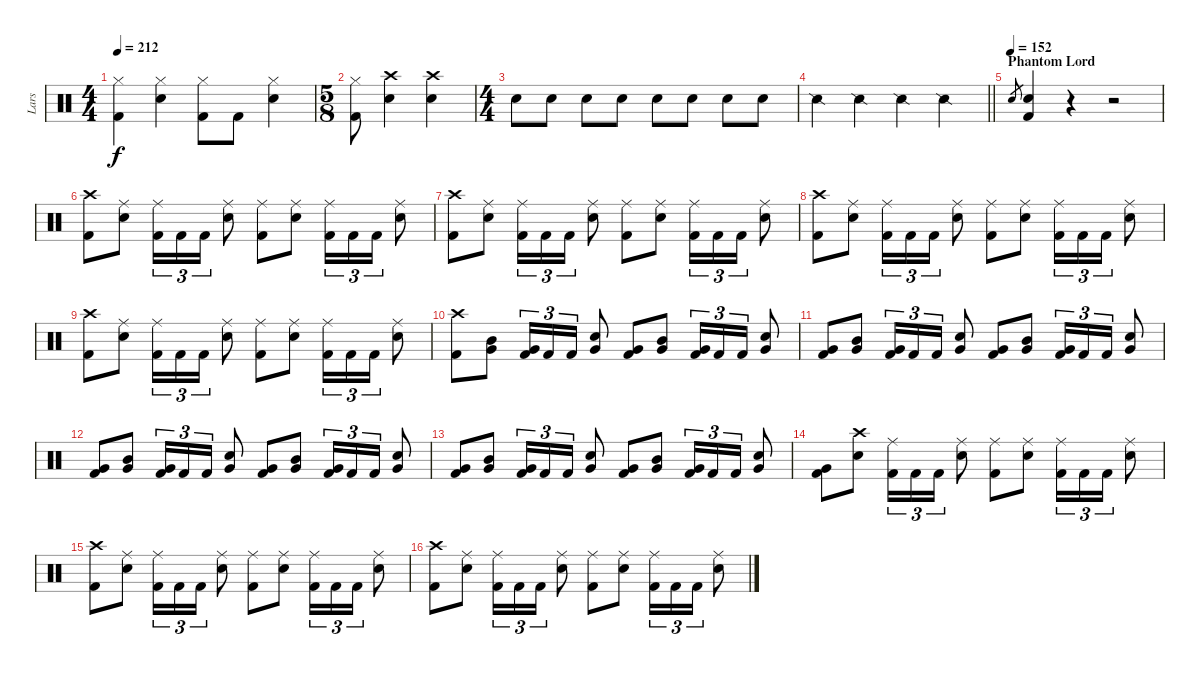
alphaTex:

\track ("Lars" "Lars") {instrument percussion}
\staff {score}
\articulation defaults
\ts (4 4)
\tempo 212
\clef neutral
\ks c
("Hi-Hat (closed)" "Kick (hit) 2").4{dy f} ("Hi-Hat (closed)" "Snare (hit) 2").4 ("Hi-Hat (closed)" "Kick (hit) 2").8 "Kick (hit) 2".8 ("Hi-Hat (closed)" "Snare (hit) 2").4 |
\ts (5 8)
("Hi-Hat (closed)" "Kick (hit) 2").8 ("Crash high (hit)" "Snare (hit) 2").4 ("Crash high (hit)" "Snare (hit) 2").4 |
\ts (4 4)
"Snare (hit) 2".8 "Snare (hit) 2".8 "Snare (hit) 2".8 "Snare (hit) 2".8 "Snare (hit) 2".8 "Snare (hit) 2".8 "Snare (hit) 2".8 "Snare (hit) 2".8 |
\barLineRight lightlight "Snare (side stick) 2".4 "Snare (side stick) 2".4 "Snare (side stick) 2".4 "Snare (side stick) 2".4
|
\section ("" "Phantom Lord")
\tempo (152)
"Snare (hit) 2".8{gr} ("Snare (hit) 2" "Kick (hit) 2").4 r.4 r.2 |
("Crash high (hit)" "Kick (hit) 2").8 ("Ride (middle)" "Snare (hit) 2").8 ("Ride (middle)" "Kick (hit) 2").16{tu (3 2)} "Kick (hit) 2".16{tu (3 2)} "Kick (hit) 2".16{tu (3 2)} ("Ride (middle)" "Snare (hit) 2").8 ("Ride (middle)" "Kick (hit) 2").8 ("Ride (middle)" "Snare (hit) 2").8 ("Ride (middle)" "Kick (hit) 2").16{tu (3 2)} "Kick (hit) 2".16{tu (3 2)} "Kick (hit) 2".16{tu (3 2)} ("Ride (middle)" "Snare (hit) 2").8 |
("Crash high (hit)" "Kick (hit) 2").8 ("Ride (middle)" "Snare (hit) 2").8 ("Ride (middle)" "Kick (hit) 2").16{tu (3 2)} "Kick (hit) 2".16{tu (3 2)} "Kick (hit) 2".16{tu (3 2)} ("Ride (middle)" "Snare (hit) 2").8 ("Ride (middle)" "Kick (hit) 2").8 ("Ride (middle)" "Snare (hit) 2").8 ("Ride (middle)" "Kick (hit) 2").16{tu (3 2)} "Kick (hit) 2".16{tu (3 2)} "Kick (hit) 2".16{tu (3 2)} ("Ride (middle)" "Snare (hit) 2").8 |
("Crash high (hit)" "Kick (hit) 2").8 ("Ride (middle)" "Snare (hit) 2").8 ("Ride (middle)" "Kick (hit) 2").16{tu (3 2)} "Kick (hit) 2".16{tu (3 2)} "Kick (hit) 2".16{tu (3 2)} ("Ride (middle)" "Snare (hit) 2").8 ("Ride (middle)" "Kick (hit) 2").8 ("Ride (middle)" "Snare (hit) 2").8 ("Ride (middle)" "Kick (hit) 2").16{tu (3 2)} "Kick (hit) 2".16{tu (3 2)} "Kick (hit) 2".16{tu (3 2)} ("Ride (middle)" "Snare (hit) 2").8 |
("Crash high (hit)" "Kick (hit) 2").8 ("Ride (middle)" "Snare (hit) 2").8 ("Ride (middle)" "Kick (hit) 2").16{tu (3 2)} "Kick (hit) 2".16{tu (3 2)} "Kick (hit) 2".16{tu (3 2)} ("Ride (middle)" "Snare (hit) 2").8 ("Ride (middle)" "Kick (hit) 2").8 ("Ride (middle)" "Snare (hit) 2").8 ("Ride (middle)" "Kick (hit) 2").16{tu (3 2)} "Kick (hit) 2".16{tu (3 2)} "Kick (hit) 2".16{tu (3 2)} ("Ride (middle)" "Snare (hit) 2").8 |
("Crash high (hit)" "Kick (hit) 2").8 ("Mid Tom (hit)" "Very Low Tom (hit)").8 ("Very Low Tom (hit)" "Kick (hit) 2").16{tu (3 2)} "Kick (hit) 2".16{tu (3 2)} "Kick (hit) 2".16{tu (3 2)} ("Snare (hit) 2" "Very Low Tom (hit)").8 ("Very Low Tom (hit)" "Kick (hit) 2").8 ("Mid Tom (hit)" "Very Low Tom (hit)").8 ("Very Low Tom (hit)" "Kick (hit) 2").16{tu (3 2)} "Kick (hit) 2".16{tu (3 2)} "Kick (hit) 2".16{tu (3 2)} ("Snare (hit) 2" "Very Low Tom (hit)").8 |
("Very Low Tom (hit)" "Kick (hit) 2").8 ("Mid Tom (hit)" "Very Low Tom (hit)").8 ("Very Low Tom (hit)" "Kick (hit) 2").16{tu (3 2)} "Kick (hit) 2".16{tu (3 2)} "Kick (hit) 2".16{tu (3 2)} ("Snare (hit) 2" "Very Low Tom (hit)").8 ("Very Low Tom (hit)" "Kick (hit) 2").8 ("Mid Tom (hit)" "Very Low Tom (hit)").8 ("Very Low Tom (hit)" "Kick (hit) 2").16{tu (3 2)} "Kick (hit) 2".16{tu (3 2)} "Kick (hit) 2".16{tu (3 2)} ("Snare (hit) 2" "Very Low Tom (hit)").8 |
("Very Low Tom (hit)" "Kick (hit) 2").8 ("Mid Tom (hit)" "Very Low Tom (hit)").8 ("Very Low Tom (hit)" "Kick (hit) 2").16{tu (3 2)} "Kick (hit) 2".16{tu (3 2)} "Kick (hit) 2".16{tu (3 2)} ("Snare (hit) 2" "Very Low Tom (hit)").8 ("Very Low Tom (hit)" "Kick (hit) 2").8 ("Mid Tom (hit)" "Very Low Tom (hit)").8 ("Very Low Tom (hit)" "Kick (hit) 2").16{tu (3 2)} "Kick (hit) 2".16{tu (3 2)} "Kick (hit) 2".16{tu (3 2)} ("Snare (hit) 2" "Very Low Tom (hit)").8 |
("Very Low Tom (hit)" "Kick (hit) 2").8 ("Mid Tom (hit)" "Very Low Tom (hit)").8 ("Very Low Tom (hit)" "Kick (hit) 2").16{tu (3 2)} "Kick (hit) 2".16{tu (3 2)} "Kick (hit) 2".16{tu (3 2)} ("Snare (hit) 2" "Very Low Tom (hit)").8 ("Very Low Tom (hit)" "Kick (hit) 2").8 ("Mid Tom (hit)" "Very Low Tom (hit)").8 ("Very Low Tom (hit)" "Kick (hit) 2").16{tu (3 2)} "Kick (hit) 2".16{tu (3 2)} "Kick (hit) 2".16{tu (3 2)} ("Snare (hit) 2" "Very Low Tom (hit)").8 |
("Very Low Tom (hit)" "Kick (hit) 2").8 ("Crash high (hit)" "Snare (hit) 2").8 ("Ride (middle)" "Kick (hit) 2").16{tu (3 2)} "Kick (hit) 2".16{tu (3 2)} "Kick (hit) 2".16{tu (3 2)} ("Ride (middle)" "Snare (hit) 2").8 ("Ride (middle)" "Kick (hit) 2").8 ("Ride (middle)" "Snare (hit) 2").8 ("Ride (middle)" "Kick (hit) 2").16{tu (3 2)} "Kick (hit) 2".16{tu (3 2)} "Kick (hit) 2".16{tu (3 2)} ("Ride (middle)" "Snare (hit) 2").8 |
("Crash high (hit)" "Kick (hit) 2").8 ("Ride (middle)" "Snare (hit) 2").8 ("Ride (middle)" "Kick (hit) 2").16{tu (3 2)} "Kick (hit) 2".16{tu (3 2)} "Kick (hit) 2".16{tu (3 2)} ("Ride (middle)" "Snare (hit) 2").8 ("Ride (middle)" "Kick (hit) 2").8 ("Ride (middle)" "Snare (hit) 2").8 ("Ride (middle)" "Kick (hit) 2").16{tu (3 2)} "Kick (hit) 2".16{tu (3 2)} "Kick (hit) 2".16{tu (3 2)} ("Ride (middle)" "Snare (hit) 2").8 |
("Crash high (hit)" "Kick (hit) 2").8 ("Ride (middle)" "Snare (hit) 2").8 ("Ride (middle)" "Kick (hit) 2").16{tu (3 2)} "Kick (hit) 2".16{tu (3 2)} "Kick (hit) 2".16{tu (3 2)} ("Ride (middle)" "Snare (hit) 2").8 ("Ride (middle)" "Kick (hit) 2").8 ("Ride (middle)" "Snare (hit) 2").8 ("Ride (middle)" "Kick (hit) 2").16{tu (3 2)} "Kick (hit) 2".16{tu (3 2)} "Kick (hit) 2".16{tu (3 2)} ("Ride (middle)" "Snare (hit) 2").8
